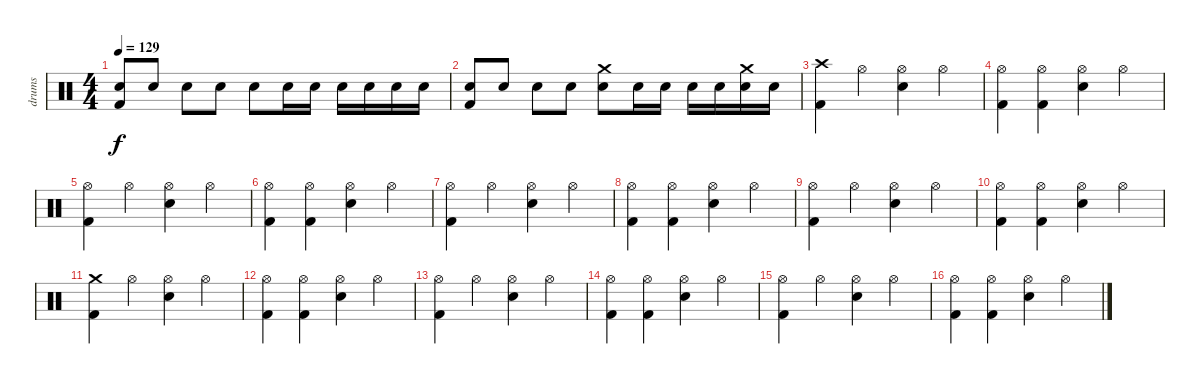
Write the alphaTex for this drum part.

\track ("drums" "drums") {instrument percussion}
\staff {score}
\articulation defaults
\ts (4 4)
\tempo 129
\clef neutral
\ks c
("Kick (hit) 2" "Snare (hit) 2").8{dy f} "Snare (hit) 2".8 "Snare (hit) 2".8 "Snare (hit) 2".8 "Snare (hit) 2".8 "Snare (hit) 2".16 "Snare (hit) 2".16 "Snare (hit) 2".16 "Snare (hit) 2".16 "Snare (hit) 2".16 "Snare (hit) 2".16 |
("Kick (hit) 2" "Snare (hit) 2").8 "Snare (hit) 2".8 "Snare (hit) 2".8 "Snare (hit) 2".8 ("Crash medium (hit)" "Snare (hit) 2").8 "Snare (hit) 2".16 "Snare (hit) 2".16 "Snare (hit) 2".16 "Snare (hit) 2".16 ("Crash medium (hit)" "Snare (hit) 2").16 "Snare (hit) 2".16 |
("Kick (hit) 2" "Crash high (hit)").4 "Hi-Hat (open)".4 ("Hi-Hat (open)" "Snare (hit) 2").4 "Hi-Hat (open)".4 |
("Kick (hit) 2" "Hi-Hat (open)").4 ("Kick (hit) 2" "Hi-Hat (open)").4 ("Hi-Hat (open)" "Snare (hit) 2").4 "Hi-Hat (open)".4 |
("Kick (hit) 2" "Hi-Hat (open)").4 "Hi-Hat (open)".4 ("Hi-Hat (open)" "Snare (hit) 2").4 "Hi-Hat (open)".4 |
("Kick (hit) 2" "Hi-Hat (open)").4 ("Kick (hit) 2" "Hi-Hat (open)").4 ("Hi-Hat (open)" "Snare (hit) 2").4 "Hi-Hat (open)".4 |
("Kick (hit) 2" "Hi-Hat (open)").4 "Hi-Hat (open)".4 ("Hi-Hat (open)" "Snare (hit) 2").4 "Hi-Hat (open)".4 |
("Kick (hit) 2" "Hi-Hat (open)").4 ("Kick (hit) 2" "Hi-Hat (open)").4 ("Hi-Hat (open)" "Snare (hit) 2").4 "Hi-Hat (open)".4 |
("Kick (hit) 2" "Hi-Hat (open)").4 "Hi-Hat (open)".4 ("Hi-Hat (open)" "Snare (hit) 2").4 "Hi-Hat (open)".4 |
("Kick (hit) 2" "Hi-Hat (open)").4 ("Kick (hit) 2" "Hi-Hat (open)").4 ("Hi-Hat (open)" "Snare (hit) 2").4 "Hi-Hat (open)".4 |
("Kick (hit) 2" "Crash medium (hit)").4 "Hi-Hat (open)".4 ("Hi-Hat (open)" "Snare (hit) 2").4 "Hi-Hat (open)".4 |
("Kick (hit) 2" "Hi-Hat (open)").4 ("Kick (hit) 2" "Hi-Hat (open)").4 ("Hi-Hat (open)" "Snare (hit) 2").4 "Hi-Hat (open)".4 |
("Kick (hit) 2" "Hi-Hat (open)").4 "Hi-Hat (open)".4 ("Hi-Hat (open)" "Snare (hit) 2").4 "Hi-Hat (open)".4 |
("Kick (hit) 2" "Hi-Hat (open)").4 ("Kick (hit) 2" "Hi-Hat (open)").4 ("Hi-Hat (open)" "Snare (hit) 2").4 "Hi-Hat (open)".4 |
("Kick (hit) 2" "Hi-Hat (open)").4 "Hi-Hat (open)".4 ("Hi-Hat (open)" "Snare (hit) 2").4 "Hi-Hat (open)".4 |
("Kick (hit) 2" "Hi-Hat (open)").4 ("Kick (hit) 2" "Hi-Hat (open)").4 ("Hi-Hat (open)" "Snare (hit) 2").4 "Hi-Hat (open)".4
